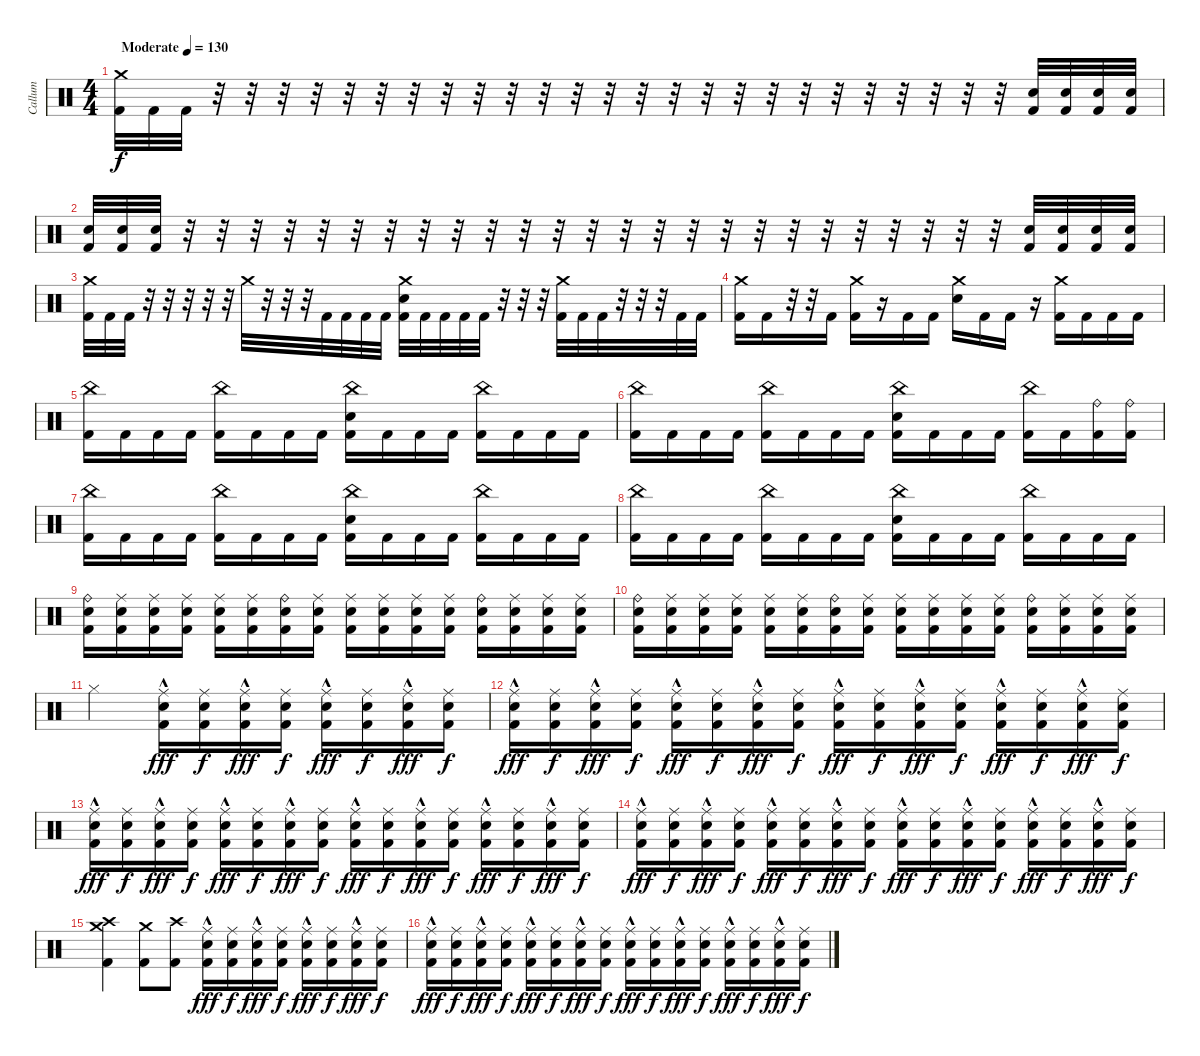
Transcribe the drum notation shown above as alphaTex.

\track ("Callum" "Callum") {instrument percussion}
\staff {score}
\articulation defaults
\ts (4 4)
\tempo (130 "Moderate")
\clef neutral
\ks c
("Crash medium (hit)" "Kick (hit) 2").32{dy f} "Kick (hit) 2".32 "Kick (hit) 2".32 r.32 r.32 r.32 r.32 r.32 r.32 r.32 r.32 r.32 r.32 r.32 r.32 r.32 r.32 r.32 r.32 r.32 r.32 r.32 r.32 r.32 r.32 r.32 r.32 r.32 ("Electric Snare (hit)" "Kick (hit) 2").32 ("Electric Snare (hit)" "Kick (hit) 2").32 ("Electric Snare (hit)" "Kick (hit) 2").32 ("Electric Snare (hit)" "Kick (hit) 2").32 |
("Electric Snare (hit)" "Kick (hit) 2").32 ("Electric Snare (hit)" "Kick (hit) 2").32 ("Electric Snare (hit)" "Kick (hit) 2").32 r.32 r.32 r.32 r.32 r.32 r.32 r.32 r.32 r.32 r.32 r.32 r.32 r.32 r.32 r.32 r.32 r.32 r.32 r.32 r.32 r.32 r.32 r.32 r.32 r.32 ("Electric Snare (hit)" "Kick (hit) 2").32 ("Electric Snare (hit)" "Kick (hit) 2").32 ("Electric Snare (hit)" "Kick (hit) 2").32 ("Electric Snare (hit)" "Kick (hit) 2").32 |
("Crash medium (hit)" "Kick (hit) 2").32 "Kick (hit) 2".32 "Kick (hit) 2".32 r.32 r.32 r.32 r.32 r.32 "Crash medium (hit)".32 r.32 r.32 r.32 "Kick (hit) 2".32 "Kick (hit) 2".32 "Kick (hit) 2".32 "Kick (hit) 2".32 ("Crash medium (hit)" "Electric Snare (hit)" "Kick (hit) 2").32 "Kick (hit) 2".32 "Kick (hit) 2".32 "Kick (hit) 2".32 "Kick (hit) 2".32 r.32 r.32 r.32 ("Crash medium (hit)" "Kick (hit) 2").32 "Kick (hit) 2".32 "Kick (hit) 2".32 r.32 r.32 r.32 "Kick (hit) 2".32 "Kick (hit) 2".32 |
("Crash medium (hit)" "Kick (hit) 2").16 "Kick (hit) 2".16 r.32 r.32 "Kick (hit) 2".16 ("Crash medium (hit)" "Kick (hit) 2").16 r.16 "Kick (hit) 2".16 "Kick (hit) 2".16 ("Crash medium (hit)" "Electric Snare (hit)").16 "Kick (hit) 2".16 "Kick (hit) 2".16 r.16 ("Crash medium (hit)" "Kick (hit) 2").16 "Kick (hit) 2".16 "Kick (hit) 2".16 "Kick (hit) 2".16 |
("China (hit)" "Kick (hit) 2").16 "Kick (hit) 2".16 "Kick (hit) 2".16 "Kick (hit) 2".16 ("China (hit)" "Kick (hit) 2").16 "Kick (hit) 2".16 "Kick (hit) 2".16 "Kick (hit) 2".16 ("China (hit)" "Electric Snare (hit)" "Kick (hit) 2").16 "Kick (hit) 2".16 "Kick (hit) 2".16 "Kick (hit) 2".16 ("China (hit)" "Kick (hit) 2").16 "Kick (hit) 2".16 "Kick (hit) 2".16 "Kick (hit) 2".16 |
("China (hit)" "Kick (hit) 2").16 "Kick (hit) 2".16 "Kick (hit) 2".16 "Kick (hit) 2".16 ("China (hit)" "Kick (hit) 2").16 "Kick (hit) 2".16 "Kick (hit) 2".16 "Kick (hit) 2".16 ("China (hit)" "Electric Snare (hit)" "Kick (hit) 2").16 "Kick (hit) 2".16 "Kick (hit) 2".16 "Kick (hit) 2".16 ("China (hit)" "Kick (hit) 2").16 "Kick (hit) 2".16 ("Ride (bell)" "Kick (hit) 2").16 ("Ride (bell)" "Kick (hit) 2").16 |
("China (hit)" "Kick (hit) 2").16 "Kick (hit) 2".16 "Kick (hit) 2".16 "Kick (hit) 2".16 ("China (hit)" "Kick (hit) 2").16 "Kick (hit) 2".16 "Kick (hit) 2".16 "Kick (hit) 2".16 ("China (hit)" "Electric Snare (hit)" "Kick (hit) 2").16 "Kick (hit) 2".16 "Kick (hit) 2".16 "Kick (hit) 2".16 ("China (hit)" "Kick (hit) 2").16 "Kick (hit) 2".16 "Kick (hit) 2".16 "Kick (hit) 2".16 |
("China (hit)" "Kick (hit) 2").16 "Kick (hit) 2".16 "Kick (hit) 2".16 "Kick (hit) 2".16 ("China (hit)" "Kick (hit) 2").16 "Kick (hit) 2".16 "Kick (hit) 2".16 "Kick (hit) 2".16 ("China (hit)" "Electric Snare (hit)" "Kick (hit) 2").16 "Kick (hit) 2".16 "Kick (hit) 2".16 "Kick (hit) 2".16 ("China (hit)" "Kick (hit) 2").16 "Kick (hit) 2".16 "Kick (hit) 2".16 "Kick (hit) 2".16 |
("Ride (bell)" "Electric Snare (hit)" "Kick (hit) 2").16 ("Ride (middle)" "Electric Snare (hit)" "Kick (hit) 2").16 ("Ride (middle)" "Electric Snare (hit)" "Kick (hit) 2").16 ("Ride (middle)" "Electric Snare (hit)" "Kick (hit) 2").16 ("Ride (middle)" "Electric Snare (hit)" "Kick (hit) 2").16 ("Ride (middle)" "Electric Snare (hit)" "Kick (hit) 2").16 ("Ride (bell)" "Electric Snare (hit)" "Kick (hit) 2").16 ("Ride (middle)" "Electric Snare (hit)" "Kick (hit) 2").16 ("Ride (middle)" "Electric Snare (hit)" "Kick (hit) 2").16 ("Ride (middle)" "Electric Snare (hit)" "Kick (hit) 2").16 ("Ride (middle)" "Electric Snare (hit)" "Kick (hit) 2").16 ("Ride (middle)" "Electric Snare (hit)" "Kick (hit) 2").16 ("Ride (bell)" "Electric Snare (hit)" "Kick (hit) 2").16 ("Ride (middle)" "Electric Snare (hit)" "Kick (hit) 2").16 ("Ride (middle)" "Electric Snare (hit)" "Kick (hit) 2").16 ("Ride (middle)" "Electric Snare (hit)" "Kick (hit) 2").16 |
("Ride (bell)" "Electric Snare (hit)" "Kick (hit) 2").16 ("Ride (middle)" "Electric Snare (hit)" "Kick (hit) 2").16 ("Ride (middle)" "Electric Snare (hit)" "Kick (hit) 2").16 ("Ride (middle)" "Electric Snare (hit)" "Kick (hit) 2").16 ("Ride (middle)" "Electric Snare (hit)" "Kick (hit) 2").16 ("Ride (middle)" "Electric Snare (hit)" "Kick (hit) 2").16 ("Ride (bell)" "Electric Snare (hit)" "Kick (hit) 2").16 ("Ride (middle)" "Electric Snare (hit)" "Kick (hit) 2").16 ("Ride (middle)" "Electric Snare (hit)" "Kick (hit) 2").16 ("Ride (middle)" "Electric Snare (hit)" "Kick (hit) 2").16 ("Ride (middle)" "Electric Snare (hit)" "Kick (hit) 2").16 ("Ride (middle)" "Electric Snare (hit)" "Kick (hit) 2").16 ("Ride (bell)" "Electric Snare (hit)" "Kick (hit) 2").16 ("Ride (middle)" "Electric Snare (hit)" "Kick (hit) 2").16 ("Ride (middle)" "Electric Snare (hit)" "Kick (hit) 2").16 ("Ride (middle)" "Electric Snare (hit)" "Kick (hit) 2").16 |
"Hi-Hat (closed)".2 ("Ride (middle)"{hac} "Electric Snare (hit)" "Kick (hit) 2").16{dy fff} ("Ride (middle)" "Electric Snare (hit)" "Kick (hit) 2").16{dy f} ("Ride (middle)"{hac} "Electric Snare (hit)" "Kick (hit) 2").16{dy fff} ("Ride (middle)" "Electric Snare (hit)" "Kick (hit) 2").16{dy f} ("Ride (middle)"{hac} "Electric Snare (hit)" "Kick (hit) 2").16{dy fff} ("Ride (middle)" "Electric Snare (hit)" "Kick (hit) 2").16{dy f} ("Ride (middle)"{hac} "Electric Snare (hit)" "Kick (hit) 2").16{dy fff} ("Ride (middle)" "Electric Snare (hit)" "Kick (hit) 2").16{dy f} |
("Ride (middle)"{hac} "Electric Snare (hit)" "Kick (hit) 2").16{dy fff} ("Ride (middle)" "Electric Snare (hit)" "Kick (hit) 2").16{dy f} ("Ride (middle)"{hac} "Electric Snare (hit)" "Kick (hit) 2").16{dy fff} ("Ride (middle)" "Electric Snare (hit)" "Kick (hit) 2").16{dy f} ("Ride (middle)"{hac} "Electric Snare (hit)" "Kick (hit) 2").16{dy fff} ("Ride (middle)" "Electric Snare (hit)" "Kick (hit) 2").16{dy f} ("Ride (middle)"{hac} "Electric Snare (hit)" "Kick (hit) 2").16{dy fff} ("Ride (middle)" "Electric Snare (hit)" "Kick (hit) 2").16{dy f} ("Ride (middle)"{hac} "Electric Snare (hit)" "Kick (hit) 2").16{dy fff} ("Ride (middle)" "Electric Snare (hit)" "Kick (hit) 2").16{dy f} ("Ride (middle)"{hac} "Electric Snare (hit)" "Kick (hit) 2").16{dy fff} ("Ride (middle)" "Electric Snare (hit)" "Kick (hit) 2").16{dy f} ("Ride (middle)"{hac} "Electric Snare (hit)" "Kick (hit) 2").16{dy fff} ("Ride (middle)" "Electric Snare (hit)" "Kick (hit) 2").16{dy f} ("Ride (middle)"{hac} "Electric Snare (hit)" "Kick (hit) 2").16{dy fff} ("Ride (middle)" "Electric Snare (hit)" "Kick (hit) 2").16{dy f} |
("Ride (middle)"{hac} "Electric Snare (hit)" "Kick (hit) 2").16{dy fff} ("Ride (middle)" "Electric Snare (hit)" "Kick (hit) 2").16{dy f} ("Ride (middle)"{hac} "Electric Snare (hit)" "Kick (hit) 2").16{dy fff} ("Ride (middle)" "Electric Snare (hit)" "Kick (hit) 2").16{dy f} ("Ride (middle)"{hac} "Electric Snare (hit)" "Kick (hit) 2").16{dy fff} ("Ride (middle)" "Electric Snare (hit)" "Kick (hit) 2").16{dy f} ("Ride (middle)"{hac} "Electric Snare (hit)" "Kick (hit) 2").16{dy fff} ("Ride (middle)" "Electric Snare (hit)" "Kick (hit) 2").16{dy f} ("Ride (middle)"{hac} "Electric Snare (hit)" "Kick (hit) 2").16{dy fff} ("Ride (middle)" "Electric Snare (hit)" "Kick (hit) 2").16{dy f} ("Ride (middle)"{hac} "Electric Snare (hit)" "Kick (hit) 2").16{dy fff} ("Ride (middle)" "Electric Snare (hit)" "Kick (hit) 2").16{dy f} ("Ride (middle)"{hac} "Electric Snare (hit)" "Kick (hit) 2").16{dy fff} ("Ride (middle)" "Electric Snare (hit)" "Kick (hit) 2").16{dy f} ("Ride (middle)"{hac} "Electric Snare (hit)" "Kick (hit) 2").16{dy fff} ("Ride (middle)" "Electric Snare (hit)" "Kick (hit) 2").16{dy f} |
("Ride (middle)"{hac} "Electric Snare (hit)" "Kick (hit) 2").16{dy fff} ("Ride (middle)" "Electric Snare (hit)" "Kick (hit) 2").16{dy f} ("Ride (middle)"{hac} "Electric Snare (hit)" "Kick (hit) 2").16{dy fff} ("Ride (middle)" "Electric Snare (hit)" "Kick (hit) 2").16{dy f} ("Ride (middle)"{hac} "Electric Snare (hit)" "Kick (hit) 2").16{dy fff} ("Ride (middle)" "Electric Snare (hit)" "Kick (hit) 2").16{dy f} ("Ride (middle)"{hac} "Electric Snare (hit)" "Kick (hit) 2").16{dy fff} ("Ride (middle)" "Electric Snare (hit)" "Kick (hit) 2").16{dy f} ("Ride (middle)"{hac} "Electric Snare (hit)" "Kick (hit) 2").16{dy fff} ("Ride (middle)" "Electric Snare (hit)" "Kick (hit) 2").16{dy f} ("Ride (middle)"{hac} "Electric Snare (hit)" "Kick (hit) 2").16{dy fff} ("Ride (middle)" "Electric Snare (hit)" "Kick (hit) 2").16{dy f} ("Ride (middle)"{hac} "Electric Snare (hit)" "Kick (hit) 2").16{dy fff} ("Ride (middle)" "Electric Snare (hit)" "Kick (hit) 2").16{dy f} ("Ride (middle)"{hac} "Electric Snare (hit)" "Kick (hit) 2").16{dy fff} ("Ride (middle)" "Electric Snare (hit)" "Kick (hit) 2").16{dy f} |
("Crash medium (hit)" "Crash high (hit)" "Kick (hit) 2").4 ("Crash medium (hit)" "Kick (hit) 2").8 ("Crash high (hit)" "Kick (hit) 2").8 ("Ride (middle)"{hac} "Electric Snare (hit)" "Kick (hit) 2").16{dy fff} ("Ride (middle)" "Electric Snare (hit)" "Kick (hit) 2").16{dy f} ("Ride (middle)"{hac} "Electric Snare (hit)" "Kick (hit) 2").16{dy fff} ("Ride (middle)" "Electric Snare (hit)" "Kick (hit) 2").16{dy f} ("Ride (middle)"{hac} "Electric Snare (hit)" "Kick (hit) 2").16{dy fff} ("Ride (middle)" "Electric Snare (hit)" "Kick (hit) 2").16{dy f} ("Ride (middle)"{hac} "Electric Snare (hit)" "Kick (hit) 2").16{dy fff} ("Ride (middle)" "Electric Snare (hit)" "Kick (hit) 2").16{dy f} |
("Ride (middle)"{hac} "Electric Snare (hit)" "Kick (hit) 2").16{dy fff} ("Ride (middle)" "Electric Snare (hit)" "Kick (hit) 2").16{dy f} ("Ride (middle)"{hac} "Electric Snare (hit)" "Kick (hit) 2").16{dy fff} ("Ride (middle)" "Electric Snare (hit)" "Kick (hit) 2").16{dy f} ("Ride (middle)"{hac} "Electric Snare (hit)" "Kick (hit) 2").16{dy fff} ("Ride (middle)" "Electric Snare (hit)" "Kick (hit) 2").16{dy f} ("Ride (middle)"{hac} "Electric Snare (hit)" "Kick (hit) 2").16{dy fff} ("Ride (middle)" "Electric Snare (hit)" "Kick (hit) 2").16{dy f} ("Ride (middle)"{hac} "Electric Snare (hit)" "Kick (hit) 2").16{dy fff} ("Ride (middle)" "Electric Snare (hit)" "Kick (hit) 2").16{dy f} ("Ride (middle)"{hac} "Electric Snare (hit)" "Kick (hit) 2").16{dy fff} ("Ride (middle)" "Electric Snare (hit)" "Kick (hit) 2").16{dy f} ("Ride (middle)"{hac} "Electric Snare (hit)" "Kick (hit) 2").16{dy fff} ("Ride (middle)" "Electric Snare (hit)" "Kick (hit) 2").16{dy f} ("Ride (middle)"{hac} "Electric Snare (hit)" "Kick (hit) 2").16{dy fff} ("Ride (middle)" "Electric Snare (hit)" "Kick (hit) 2").16{dy f}
